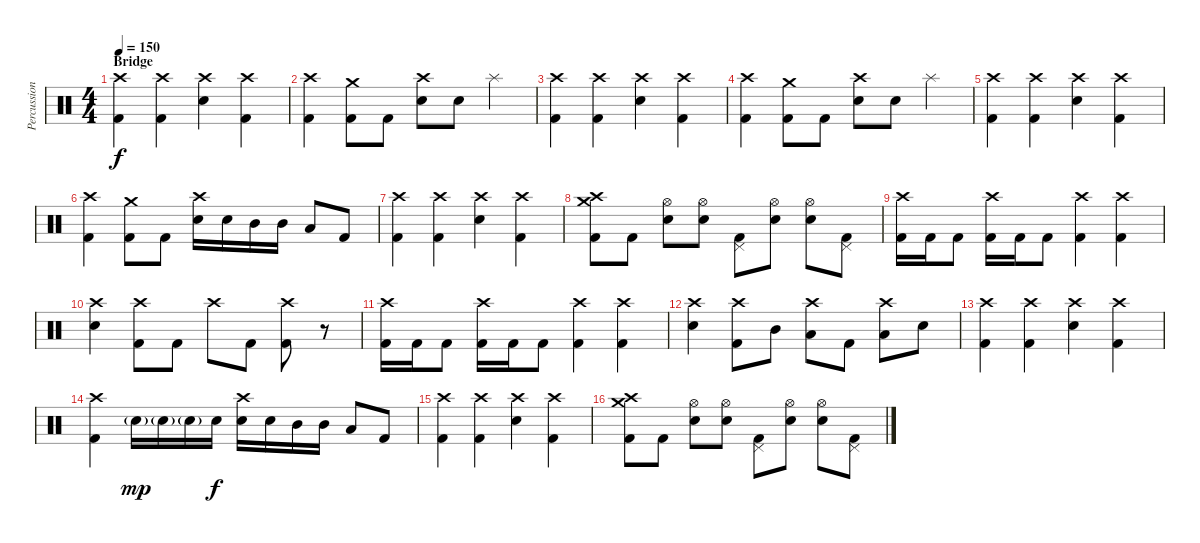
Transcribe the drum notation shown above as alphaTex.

\track ("Percussion" "Percussion") {instrument percussion}
\staff {score}
\articulation defaults
\ts (4 4)
\section ("" "Bridge")
\tempo 150
\clef neutral
\ks c
("Crash high (hit)" "Kick (hit) 2").4{dy f} ("Crash high (hit)" "Kick (hit) 2").4 ("Crash high (hit)" "Electric Snare (hit)").4 ("Crash high (hit)" "Kick (hit) 2").4 |
("Crash high (hit)" "Kick (hit) 2").4 ("Crash medium (hit)" "Kick (hit) 2").8 "Kick (hit) 2".8 ("Crash high (hit)" "Electric Snare (hit)").8 "Electric Snare (hit)".8 "Splash (hit)".4 |
("Crash high (hit)" "Kick (hit) 2").4 ("Crash high (hit)" "Kick (hit) 2").4 ("Crash high (hit)" "Electric Snare (hit)").4 ("Crash high (hit)" "Kick (hit) 2").4 |
("Crash high (hit)" "Kick (hit) 2").4 ("Crash medium (hit)" "Kick (hit) 2").8 "Kick (hit) 2".8 ("Crash high (hit)" "Electric Snare (hit)").8 "Electric Snare (hit)".8 "Splash (hit)".4 |
("Crash high (hit)" "Kick (hit) 2").4 ("Crash high (hit)" "Kick (hit) 2").4 ("Crash high (hit)" "Electric Snare (hit)").4 ("Crash high (hit)" "Kick (hit) 2").4 |
("Crash high (hit)" "Kick (hit) 2").4 ("Crash medium (hit)" "Kick (hit) 2").8 "Kick (hit) 2".8 ("Crash high (hit)" "Electric Snare (hit)").16 "Electric Snare (hit)".16 "Mid Tom (hit)".16 "Mid Tom (hit)".16 "Low Floor Tom (hit)".8 "Kick (hit) 2".8 |
("Crash high (hit)" "Kick (hit) 2").4 ("Crash high (hit)" "Kick (hit) 2").4 ("Crash high (hit)" "Electric Snare (hit)").4 ("Crash high (hit)" "Kick (hit) 2").4 |
("Crash high (hit)" "Crash medium (hit)" "Kick (hit) 2").8 "Kick (hit) 2".8 ("Hi-Hat (open)" "Electric Snare (hit)").8 ("Hi-Hat (open)" "Electric Snare (hit)").8 ("Pedal Hi-Hat (hit)" "Kick (hit) 2").8 ("Hi-Hat (open)" "Electric Snare (hit)").8 ("Hi-Hat (open)" "Electric Snare (hit)").8 ("Pedal Hi-Hat (hit)" "Kick (hit) 2").8 |
("Crash high (hit)" "Kick (hit) 2").16 "Kick (hit) 2".16 "Kick (hit) 2".8 ("Crash high (hit)" "Kick (hit) 2").16 "Kick (hit) 2".16 "Kick (hit) 2".8 ("Crash high (hit)" "Kick (hit) 2").4 ("Crash high (hit)" "Kick (hit) 2").4 |
("Crash high (hit)" "Electric Snare (hit)").4 ("Crash high (hit)" "Kick (hit) 2").8 "Kick (hit) 2".8 "Crash high (hit)".8 "Kick (hit) 2".8 ("Crash high (hit)" "Kick (hit) 2").8 r.8 |
("Crash high (hit)" "Kick (hit) 2").16 "Kick (hit) 2".16 "Kick (hit) 2".8 ("Crash high (hit)" "Kick (hit) 2").16 "Kick (hit) 2".16 "Kick (hit) 2".8 ("Crash high (hit)" "Kick (hit) 2").4 ("Crash high (hit)" "Kick (hit) 2").4 |
("Crash high (hit)" "Electric Snare (hit)").4 ("Crash high (hit)" "Kick (hit) 2").8 "Mid Tom (hit)".8 ("Crash high (hit)" "Low Tom (hit)").8 "Kick (hit) 2".8 ("Crash high (hit)" "Low Floor Tom (hit)").8 "Electric Snare (hit)".8 |
("Crash high (hit)" "Kick (hit) 2").4 ("Crash high (hit)" "Kick (hit) 2").4 ("Crash high (hit)" "Electric Snare (hit)").4 ("Crash high (hit)" "Kick (hit) 2").4 |
("Crash high (hit)" "Kick (hit) 2").4 "Electric Snare (hit)"{g}.16{dy mp} "Electric Snare (hit)"{g}.16 "Electric Snare (hit)"{g}.16 "Electric Snare (hit)".16{dy f} ("Crash high (hit)" "Electric Snare (hit)").16 "Electric Snare (hit)".16 "Mid Tom (hit)".16 "Mid Tom (hit)".16 "Low Floor Tom (hit)".8 "Kick (hit) 2".8 |
("Crash high (hit)" "Kick (hit) 2").4 ("Crash high (hit)" "Kick (hit) 2").4 ("Crash high (hit)" "Electric Snare (hit)").4 ("Crash high (hit)" "Kick (hit) 2").4 |
("Crash high (hit)" "Crash medium (hit)" "Kick (hit) 2").8 "Kick (hit) 2".8 ("Hi-Hat (open)" "Electric Snare (hit)").8 ("Hi-Hat (open)" "Electric Snare (hit)").8 ("Pedal Hi-Hat (hit)" "Kick (hit) 2").8 ("Hi-Hat (open)" "Electric Snare (hit)").8 ("Hi-Hat (open)" "Electric Snare (hit)").8 ("Pedal Hi-Hat (hit)" "Kick (hit) 2").8
